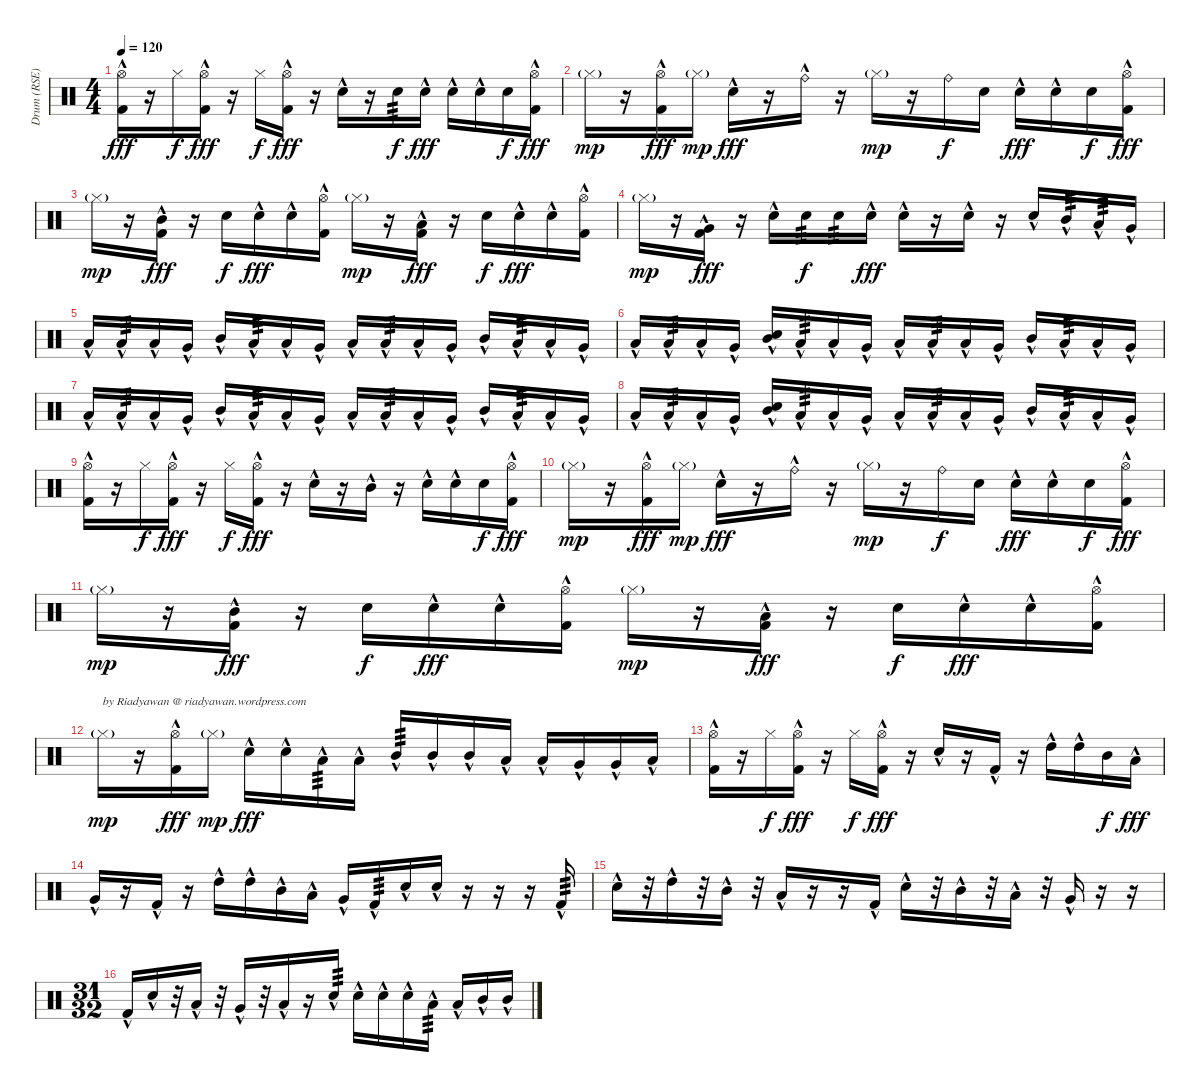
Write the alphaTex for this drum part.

\track ("Drum (RSE)" "Drum (RSE)") {instrument percussion}
\staff {score}
\articulation defaults
\ts (4 4)
\tempo 120
\clef neutral
\ks c
("Hi-Hat (open)" "Kick (hit) 2"{hac}).16{dy fff} r.16 "Hi-Hat (closed)".16{dy f} ("Hi-Hat (open)" "Kick (hit) 2"{hac}).16{dy fff} r.16 "Hi-Hat (closed)".16{dy f} ("Hi-Hat (open)" "Kick (hit) 2"{hac}).16{dy fff} r.16 "Snare (hit) 2"{hac}.16 r.16 "Snare (hit) 2".16{tp 3 dy f} "Snare (hit) 2"{hac}.16{dy fff} "Snare (hit) 2"{hac}.16 "Snare (hit) 2"{hac}.16 "Snare (hit) 2".16{dy f} ("Hi-Hat (open)" "Kick (hit) 2"{hac}).16{dy fff} |
"Hi-Hat (closed)"{g}.16{dy mp} r.16 ("Hi-Hat (open)" "Kick (hit) 2"{hac}).16{dy fff} "Hi-Hat (closed)"{g}.16{dy mp} "Snare (hit) 2"{hac}.16{dy fff} r.16 "Ride (bell)"{hac}.16 r.16 "Hi-Hat (closed)"{g}.16{dy mp} r.16 "Ride (bell)".16{dy f} "Snare (hit) 2".16 "Snare (hit) 2"{hac}.16{dy fff} "Snare (hit) 2"{hac}.16 "Snare (hit) 2".16{dy f} ("Hi-Hat (open)" "Kick (hit) 2"{hac}).16{dy fff} |
"Hi-Hat (closed)"{g}.16{dy mp} r.16 ("Mid Tom (hit)"{hac} "Kick (hit) 2"{hac}).16{dy fff} r.16 "Snare (hit) 2".16{dy f} "Snare (hit) 2"{hac}.16{dy fff} "Snare (hit) 2"{hac}.16 ("Hi-Hat (open)" "Kick (hit) 2"{hac}).16 "Hi-Hat (closed)"{g}.16{dy mp} r.16 ("Low Tom (hit)"{hac} "Kick (hit) 2"{hac}).16{dy fff} r.16 "Snare (hit) 2".16{dy f} "Snare (hit) 2"{hac}.16{dy fff} "Snare (hit) 2"{hac}.16 ("Hi-Hat (open)" "Kick (hit) 2"{hac}).16 |
"Hi-Hat (closed)"{g}.16{dy mp} r.16 ("Very Low Tom (hit)"{hac} "Kick (hit) 2"{hac}).16{dy fff} r.16 "Snare (hit) 2"{hac}.16 "Snare (hit) 2".16{tp 3 dy f} "Snare (hit) 2".16{tp 3} "Snare (hit) 2"{hac}.16{dy fff} "Snare (hit) 2"{hac}.16 r.16 "Snare (hit) 2"{hac}.16 r.16 "Snare (hit) 2"{hac}.16 "Mid Tom (hit)"{hac}.16{tp 3} "Low Tom (hit)"{hac}.16{tp 3} "Very Low Tom (hit)"{hac}.16 |
"Low Tom (hit)"{hac}.16 "Low Tom (hit)"{hac}.16{tp 3} "Low Tom (hit)"{hac}.16 "Very Low Tom (hit)"{hac}.16 "Mid Tom (hit)"{hac}.16 "Low Tom (hit)"{hac}.16{tp 3} "Low Tom (hit)"{hac}.16 "Very Low Tom (hit)"{hac}.16 "Low Tom (hit)"{hac}.16 "Low Tom (hit)"{hac}.16{tp 3} "Low Tom (hit)"{hac}.16 "Very Low Tom (hit)"{hac}.16 "Mid Tom (hit)"{hac}.16 "Low Tom (hit)"{hac}.16{tp 3} "Low Tom (hit)"{hac}.16 "Very Low Tom (hit)"{hac}.16 |
"Low Tom (hit)"{hac}.16 "Low Tom (hit)"{hac}.16{tp 3} "Low Tom (hit)"{hac}.16 "Very Low Tom (hit)"{hac}.16 ("Snare (hit) 2"{hac} "Mid Tom (hit)"{hac}).16 "Low Tom (hit)"{hac}.16{tp 3} "Low Tom (hit)"{hac}.16 "Very Low Tom (hit)"{hac}.16 "Low Tom (hit)"{hac}.16 "Low Tom (hit)"{hac}.16{tp 3} "Low Tom (hit)"{hac}.16 "Very Low Tom (hit)"{hac}.16 "Mid Tom (hit)"{hac}.16 "Low Tom (hit)"{hac}.16{tp 3} "Low Tom (hit)"{hac}.16 "Very Low Tom (hit)"{hac}.16 |
"Low Tom (hit)"{hac}.16 "Low Tom (hit)"{hac}.16{tp 3} "Low Tom (hit)"{hac}.16 "Very Low Tom (hit)"{hac}.16 "Mid Tom (hit)"{hac}.16 "Low Tom (hit)"{hac}.16{tp 3} "Low Tom (hit)"{hac}.16 "Very Low Tom (hit)"{hac}.16 "Low Tom (hit)"{hac}.16 "Low Tom (hit)"{hac}.16{tp 3} "Low Tom (hit)"{hac}.16 "Very Low Tom (hit)"{hac}.16 "Mid Tom (hit)"{hac}.16 "Low Tom (hit)"{hac}.16{tp 3} "Low Tom (hit)"{hac}.16 "Very Low Tom (hit)"{hac}.16 |
"Low Tom (hit)"{hac}.16 "Low Tom (hit)"{hac}.16{tp 3} "Low Tom (hit)"{hac}.16 "Very Low Tom (hit)"{hac}.16 ("Snare (hit) 2"{hac} "Mid Tom (hit)"{hac}).16 "Low Tom (hit)"{hac}.16{tp 3} "Low Tom (hit)"{hac}.16 "Very Low Tom (hit)"{hac}.16 "Low Tom (hit)"{hac}.16 "Low Tom (hit)"{hac}.16{tp 3} "Low Tom (hit)"{hac}.16 "Very Low Tom (hit)"{hac}.16 "Mid Tom (hit)"{hac}.16 "Low Tom (hit)"{hac}.16{tp 3} "Low Tom (hit)"{hac}.16 "Very Low Tom (hit)"{hac}.16 |
("Hi-Hat (open)" "Kick (hit) 2"{hac}).16 r.16 "Hi-Hat (closed)".16{dy f} ("Hi-Hat (open)" "Kick (hit) 2"{hac}).16{dy fff} r.16 "Hi-Hat (closed)".16{dy f} ("Hi-Hat (open)" "Kick (hit) 2"{hac}).16{dy fff} r.16 "Snare (hit) 2"{hac}.16 r.16 "Mid Tom (hit)"{hac}.16 r.16 "Snare (hit) 2"{hac}.16 "Snare (hit) 2"{hac}.16 "Snare (hit) 2".16{dy f} ("Hi-Hat (open)" "Kick (hit) 2"{hac}).16{dy fff} |
"Hi-Hat (closed)"{g}.16{dy mp} r.16 ("Hi-Hat (open)" "Kick (hit) 2"{hac}).16{dy fff} "Hi-Hat (closed)"{g}.16{dy mp} "Snare (hit) 2"{hac}.16{dy fff} r.16 "Ride (bell)"{hac}.16 r.16 "Hi-Hat (closed)"{g}.16{dy mp} r.16 "Ride (bell)".16{dy f} "Snare (hit) 2".16 "Snare (hit) 2"{hac}.16{dy fff} "Snare (hit) 2"{hac}.16 "Snare (hit) 2".16{dy f} ("Hi-Hat (open)" "Kick (hit) 2"{hac}).16{dy fff} |
"Hi-Hat (closed)"{g}.16{dy mp} r.16 ("Mid Tom (hit)" "Kick (hit) 2"{hac}).16{dy fff} r.16 "Snare (hit) 2".16{dy f} "Snare (hit) 2"{hac}.16{dy fff} "Snare (hit) 2"{hac}.16 ("Hi-Hat (open)" "Kick (hit) 2"{hac}).16 "Hi-Hat (closed)"{g}.16{dy mp} r.16 ("Low Tom (hit)" "Kick (hit) 2"{hac}).16{dy fff} r.16 "Snare (hit) 2".16{dy f} "Snare (hit) 2"{hac}.16{dy fff} "Snare (hit) 2"{hac}.16 ("Hi-Hat (open)" "Kick (hit) 2"{hac}).16 |
"Hi-Hat (closed)"{g}.16{txt "by Riadyawan @ riadyawan.wordpress.com" dy mp} r.16 ("Hi-Hat (open)" "Kick (hit) 2"{hac}).16{dy fff} "Hi-Hat (closed)"{g}.16{dy mp} "Snare (hit) 2"{hac}.16{dy fff} "Snare (hit) 2"{hac}.16 "Low Tom (hit)"{hac}.16{tp 3} "Low Tom (hit)"{hac}.16 "Mid Tom (hit)"{hac}.16{tp 3} "Mid Tom (hit)"{hac}.16 "Mid Tom (hit)"{hac}.16 "Low Tom (hit)"{hac}.16 "Low Tom (hit)"{hac}.16 "Very Low Tom (hit)"{hac}.16 "Very Low Tom (hit)"{hac}.16 "Low Floor Tom (hit)"{hac}.16 |
("Hi-Hat (open)" "Kick (hit) 2"{hac}).16 r.16 "Hi-Hat (closed)".16{dy f} ("Hi-Hat (open)" "Kick (hit) 2"{hac}).16{dy fff} r.16 "Hi-Hat (closed)".16{dy f} ("Hi-Hat (open)" "Kick (hit) 2"{hac}).16{dy fff} r.16 "Snare (hit) 2"{hac}.16 r.16 "Kick (hit) 2"{hac}.16 r.16 "High Tom (hit)"{hac}.16 "High Tom (hit)"{hac}.16 "Mid Tom (hit)".16{dy f} "Low Tom (hit)"{hac}.16{dy fff} |
"Very Low Tom (hit)"{hac}.16 r.16 "Kick (hit) 2"{hac}.16 r.16 "High Tom (hit)"{hac}.16 "High Tom (hit)"{hac}.16 "Mid Tom (hit)"{hac}.16 "Low Tom (hit)"{hac}.16 "Very Low Tom (hit)"{hac}.16 "Kick (hit) 2"{hac}.16{tp 3} "Snare (hit) 2"{hac}.16 "Snare (hit) 2"{hac}.16 r.16 r.16 r.16 "Kick (hit) 2"{hac}.16{tp 3} |
"Snare (hit) 2"{hac}.16 r.32 "High Tom (hit)"{hac}.16 r.32 "Mid Tom (hit)"{hac}.16 r.32 "Low Tom (hit)"{hac}.16 r.16 r.16 "Kick (hit) 2"{hac}.16 "Snare (hit) 2"{hac}.16 r.32 "Mid Tom (hit)"{hac}.16 r.32 "Low Tom (hit)"{hac}.16 r.32 "Very Low Tom (hit)"{hac}.16 r.16 r.16 |
\ts (31 32)
"Kick (hit) 2"{hac}.16 "Snare (hit) 2"{hac}.16 r.32 "Low Tom (hit)"{hac}.16 r.32 "Very Low Tom (hit)"{hac}.16 r.32 "Low Floor Tom (hit)"{hac}.16 r.16 "Snare (hit) 2"{hac}.16{tp 3} "Snare (hit) 2"{hac}.16 "Snare (hit) 2"{hac}.16 "Snare (hit) 2"{hac}.16 "Low Tom (hit)"{hac}.16{tp 3} "Low Tom (hit)"{hac}.16 "Mid Tom (hit)"{hac}.16 "Mid Tom (hit)"{hac}.16
